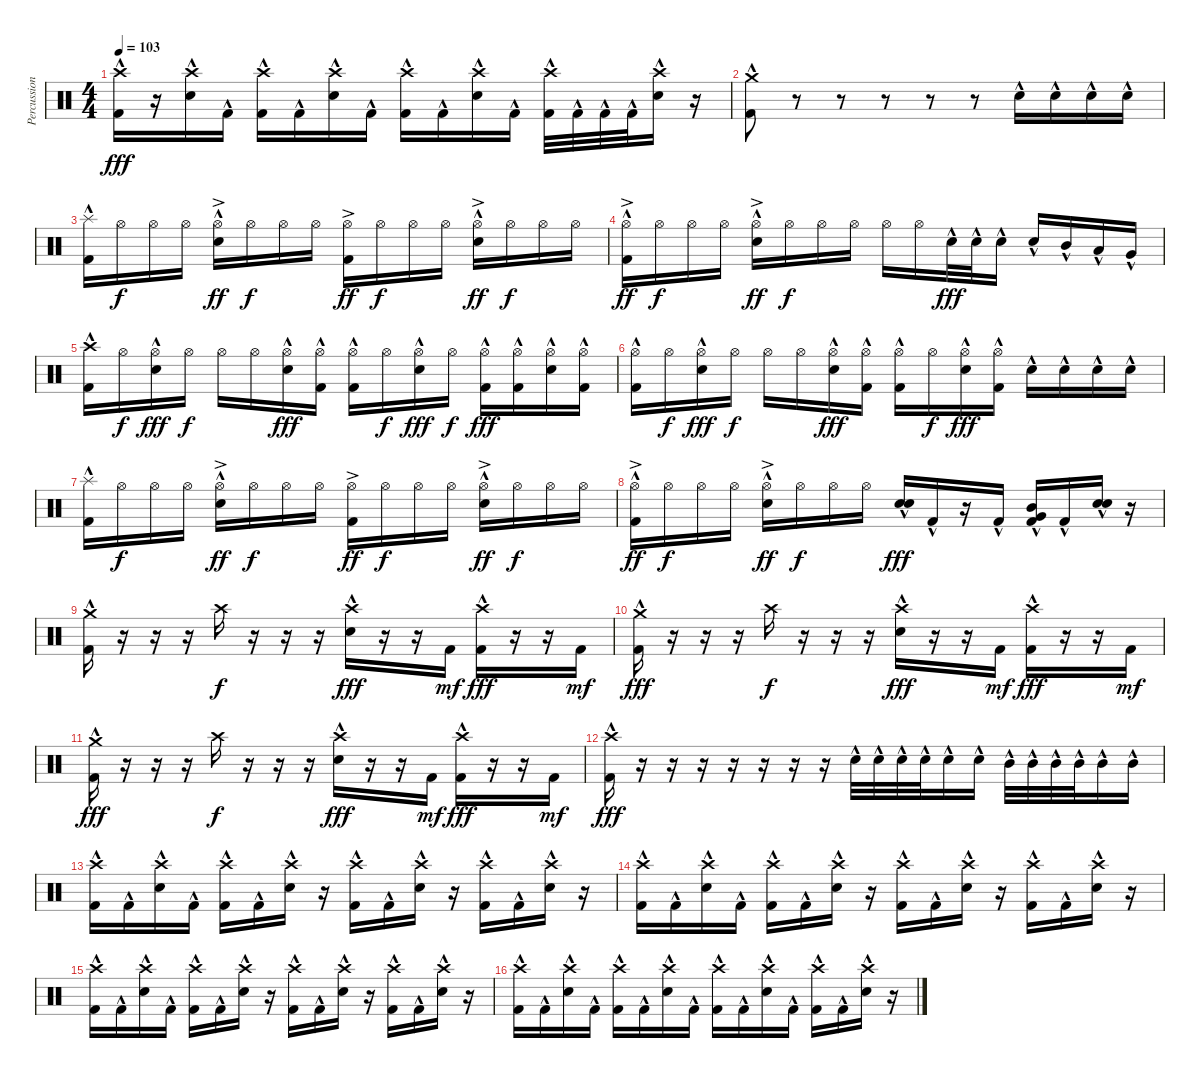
\track ("Percussion" "Percussion") {instrument percussion}
\staff {score}
\articulation defaults
\ts (4 4)
\tempo 103
\clef neutral
\ks c
("Kick (hit) 2"{hac} "Crash high (hit)").16{dy fff} r.16 ("Electric Snare (hit)"{hac} "Crash high (hit)").16 "Kick (hit) 2"{hac}.16 ("Kick (hit) 2"{hac} "Crash high (hit)").16 "Kick (hit) 2"{hac}.16 ("Electric Snare (hit)"{hac} "Crash high (hit)").16 "Kick (hit) 2"{hac}.16 ("Kick (hit) 2"{hac} "Crash high (hit)").16 "Kick (hit) 2"{hac}.16 ("Electric Snare (hit)"{hac} "Crash high (hit)").16 "Kick (hit) 2"{hac}.16 ("Kick (hit) 2"{hac} "Crash high (hit)").32 "Kick (hit) 2"{hac}.32 "Kick (hit) 2"{hac}.32 "Kick (hit) 2"{hac}.32 ("Electric Snare (hit)"{hac} "Crash high (hit)").16 r.16 |
("Kick (hit) 2"{hac} "Crash medium (hit)").8 r.8{volume 0} r.8 r.8 r.8 r.8{volume 8} "Electric Snare (hit)"{hac}.16 "Electric Snare (hit)"{hac}.16 "Electric Snare (hit)"{hac}.16 "Electric Snare (hit)"{hac}.16 |
("Kick (hit) 2"{hac} "Splash (hit)").16 "Hi-Hat (open)".16{dy f} "Hi-Hat (open)".16 "Hi-Hat (open)".16 ("Electric Snare (hit)"{hac} "Hi-Hat (open)"{ac}).16{dy ff} "Hi-Hat (open)".16{dy f} "Hi-Hat (open)".16 "Hi-Hat (open)".16 ("Kick (hit) 2" "Hi-Hat (open)"{ac}).16{dy ff} "Hi-Hat (open)".16{dy f} "Hi-Hat (open)".16 "Hi-Hat (open)".16 ("Electric Snare (hit)"{hac} "Hi-Hat (open)"{ac}).16{dy ff} "Hi-Hat (open)".16{dy f} "Hi-Hat (open)".16 "Hi-Hat (open)".16 |
("Kick (hit) 2"{hac} "Hi-Hat (open)"{ac}).16{dy ff} "Hi-Hat (open)".16{dy f} "Hi-Hat (open)".16 "Hi-Hat (open)".16 ("Electric Snare (hit)"{hac} "Hi-Hat (open)"{ac}).16{dy ff} "Hi-Hat (open)".16{dy f} "Hi-Hat (open)".16 "Hi-Hat (open)".16 "Hi-Hat (open)".16 "Hi-Hat (open)".16 "Electric Snare (hit)"{hac}.32{dy fff} "Electric Snare (hit)"{hac}.32 "Electric Snare (hit)"{hac}.16 "Electric Snare (hit)"{hac}.16 "Mid Tom (hit)"{hac}.16 "Low Tom (hit)"{hac}.16 "Very Low Tom (hit)"{hac}.16 |
("Kick (hit) 2"{hac} "Crash high (hit)").16 "Hi-Hat (open)".16{dy f} ("Electric Snare (hit)"{hac} "Hi-Hat (open)").16{dy fff} "Hi-Hat (open)".16{dy f} "Hi-Hat (open)".16 "Hi-Hat (open)".16 ("Electric Snare (hit)"{hac} "Hi-Hat (open)").16{dy fff} ("Kick (hit) 2"{hac} "Hi-Hat (open)").16 ("Kick (hit) 2"{hac} "Hi-Hat (open)").16 "Hi-Hat (open)".16{dy f} ("Electric Snare (hit)"{hac} "Hi-Hat (open)").16{dy fff} "Hi-Hat (open)".16{dy f} ("Kick (hit) 2"{hac} "Hi-Hat (open)").16{dy fff} ("Kick (hit) 2"{hac} "Hi-Hat (open)").16 ("Electric Snare (hit)"{hac} "Hi-Hat (open)").16 ("Kick (hit) 2"{hac} "Hi-Hat (open)").16 |
("Kick (hit) 2"{hac} "Hi-Hat (open)").16 "Hi-Hat (open)".16{dy f} ("Electric Snare (hit)"{hac} "Hi-Hat (open)").16{dy fff} "Hi-Hat (open)".16{dy f} "Hi-Hat (open)".16 "Hi-Hat (open)".16 ("Electric Snare (hit)"{hac} "Hi-Hat (open)").16{dy fff} ("Kick (hit) 2"{hac} "Hi-Hat (open)").16 ("Kick (hit) 2"{hac} "Hi-Hat (open)").16 "Hi-Hat (open)".16{dy f} ("Electric Snare (hit)"{hac} "Hi-Hat (open)").16{dy fff} ("Kick (hit) 2"{hac} "Hi-Hat (open)").16 "Electric Snare (hit)"{hac}.16 "Electric Snare (hit)"{hac}.16 "Electric Snare (hit)"{hac}.16 "Electric Snare (hit)"{hac}.16 |
("Kick (hit) 2"{hac} "Splash (hit)").16 "Hi-Hat (open)".16{dy f} "Hi-Hat (open)".16 "Hi-Hat (open)".16 ("Electric Snare (hit)"{hac} "Hi-Hat (open)"{ac}).16{dy ff} "Hi-Hat (open)".16{dy f} "Hi-Hat (open)".16 "Hi-Hat (open)".16 ("Kick (hit) 2" "Hi-Hat (open)"{ac}).16{dy ff} "Hi-Hat (open)".16{dy f} "Hi-Hat (open)".16 "Hi-Hat (open)".16 ("Electric Snare (hit)"{hac} "Hi-Hat (open)"{ac}).16{dy ff} "Hi-Hat (open)".16{dy f} "Hi-Hat (open)".16 "Hi-Hat (open)".16 |
("Kick (hit) 2"{hac} "Hi-Hat (open)"{ac}).16{dy ff} "Hi-Hat (open)".16{dy f} "Hi-Hat (open)".16 "Hi-Hat (open)".16 ("Electric Snare (hit)"{hac} "Hi-Hat (open)"{ac}).16{dy ff} "Hi-Hat (open)".16{dy f} "Hi-Hat (open)".16 "Hi-Hat (open)".16 ("Electric Snare (hit)"{hac} "Electric Snare (hit)"{hac}).16{bd 240 dy fff} "Kick (hit) 2"{hac}.16 r.16 "Kick (hit) 2"{hac}.16 ("Kick (hit) 2"{hac} "Mid Tom (hit)"{hac} "Very Low Tom (hit)"{hac}).16 "Kick (hit) 2"{hac}.16 ("Electric Snare (hit)"{hac} "Electric Snare (hit)"{hac}).16{bd 240} r.16 |
("Kick (hit) 2"{hac} "Crash medium (hit)").16 r.16 r.16 r.16 "Crash high (hit)".16{dy f} r.16 r.16 r.16 ("Electric Snare (hit)"{hac} "Crash high (hit)").16{dy fff} r.16 r.16 "Kick (hit) 2".16{dy mf} ("Kick (hit) 2"{hac} "Crash high (hit)").16{dy fff} r.16 r.16 "Kick (hit) 2".16{dy mf} |
("Kick (hit) 2"{hac} "Crash medium (hit)").16{dy fff} r.16 r.16 r.16 "Crash high (hit)".16{dy f} r.16 r.16 r.16 ("Electric Snare (hit)"{hac} "Crash high (hit)").16{dy fff} r.16 r.16 "Kick (hit) 2".16{dy mf} ("Kick (hit) 2"{hac} "Crash high (hit)").16{dy fff} r.16 r.16 "Kick (hit) 2".16{dy mf} |
("Kick (hit) 2"{hac} "Crash medium (hit)").16{dy fff} r.16 r.16 r.16 "Crash high (hit)".16{dy f} r.16 r.16 r.16 ("Electric Snare (hit)"{hac} "Crash high (hit)").16{dy fff} r.16 r.16 "Kick (hit) 2".16{dy mf} ("Kick (hit) 2"{hac} "Crash high (hit)").16{dy fff} r.16 r.16 "Kick (hit) 2".16{dy mf} |
("Kick (hit) 2"{hac} "Crash high (hit)").16{dy fff} r.16 r.16{volume 0} r.16 r.16 r.16 r.16 r.16 "Electric Snare (hit)"{hac}.32{volume 8} "Electric Snare (hit)"{hac}.32 "Electric Snare (hit)"{hac}.32 "Electric Snare (hit)"{hac}.32 "Electric Snare (hit)"{hac}.16 "Electric Snare (hit)"{hac}.16 "Mid Tom (hit)"{hac}.32 "Mid Tom (hit)"{hac}.32 "Mid Tom (hit)"{hac}.32 "Mid Tom (hit)"{hac}.32 "Mid Tom (hit)"{hac}.16 "Mid Tom (hit)"{hac}.16 |
("Kick (hit) 2"{hac} "Crash high (hit)").16 "Kick (hit) 2"{hac}.16 ("Electric Snare (hit)"{hac} "Crash high (hit)").16 "Kick (hit) 2"{hac}.16 ("Kick (hit) 2"{hac} "Crash high (hit)").16 "Kick (hit) 2"{hac}.16 ("Electric Snare (hit)"{hac} "Crash high (hit)").16 r.16 ("Kick (hit) 2"{hac} "Crash high (hit)").16 "Kick (hit) 2"{hac}.16 ("Electric Snare (hit)"{hac} "Crash high (hit)").16 r.16 ("Kick (hit) 2"{hac} "Crash high (hit)").16 "Kick (hit) 2"{hac}.16 ("Electric Snare (hit)"{hac} "Crash high (hit)").16 r.16 |
("Kick (hit) 2"{hac} "Crash high (hit)").16 "Kick (hit) 2"{hac}.16 ("Electric Snare (hit)"{hac} "Crash high (hit)").16 "Kick (hit) 2"{hac}.16 ("Kick (hit) 2"{hac} "Crash high (hit)").16 "Kick (hit) 2"{hac}.16 ("Electric Snare (hit)"{hac} "Crash high (hit)").16 r.16 ("Kick (hit) 2"{hac} "Crash high (hit)").16 "Kick (hit) 2"{hac}.16 ("Electric Snare (hit)"{hac} "Crash high (hit)").16 r.16 ("Kick (hit) 2"{hac} "Crash high (hit)").16 "Kick (hit) 2"{hac}.16 ("Electric Snare (hit)"{hac} "Crash high (hit)").16 r.16 |
("Kick (hit) 2"{hac} "Crash high (hit)").16 "Kick (hit) 2"{hac}.16 ("Electric Snare (hit)"{hac} "Crash high (hit)").16 "Kick (hit) 2"{hac}.16 ("Kick (hit) 2"{hac} "Crash high (hit)").16 "Kick (hit) 2"{hac}.16 ("Electric Snare (hit)"{hac} "Crash high (hit)").16 r.16 ("Kick (hit) 2"{hac} "Crash high (hit)").16 "Kick (hit) 2"{hac}.16 ("Electric Snare (hit)"{hac} "Crash high (hit)").16 r.16 ("Kick (hit) 2"{hac} "Crash high (hit)").16 "Kick (hit) 2"{hac}.16 ("Electric Snare (hit)"{hac} "Crash high (hit)").16 r.16 |
("Kick (hit) 2"{hac} "Crash high (hit)").16 "Kick (hit) 2"{hac}.16 ("Electric Snare (hit)"{hac} "Crash high (hit)").16 "Kick (hit) 2"{hac}.16 ("Kick (hit) 2"{hac} "Crash high (hit)").16 "Kick (hit) 2"{hac}.16 ("Electric Snare (hit)"{hac} "Crash high (hit)").16 "Kick (hit) 2"{hac}.16 ("Kick (hit) 2"{hac} "Crash high (hit)").16 "Kick (hit) 2"{hac}.16 ("Electric Snare (hit)"{hac} "Crash high (hit)").16 "Kick (hit) 2"{hac}.16 ("Kick (hit) 2"{hac} "Crash high (hit)").16 "Kick (hit) 2"{hac}.16 ("Electric Snare (hit)"{hac} "Crash high (hit)").16 r.16
